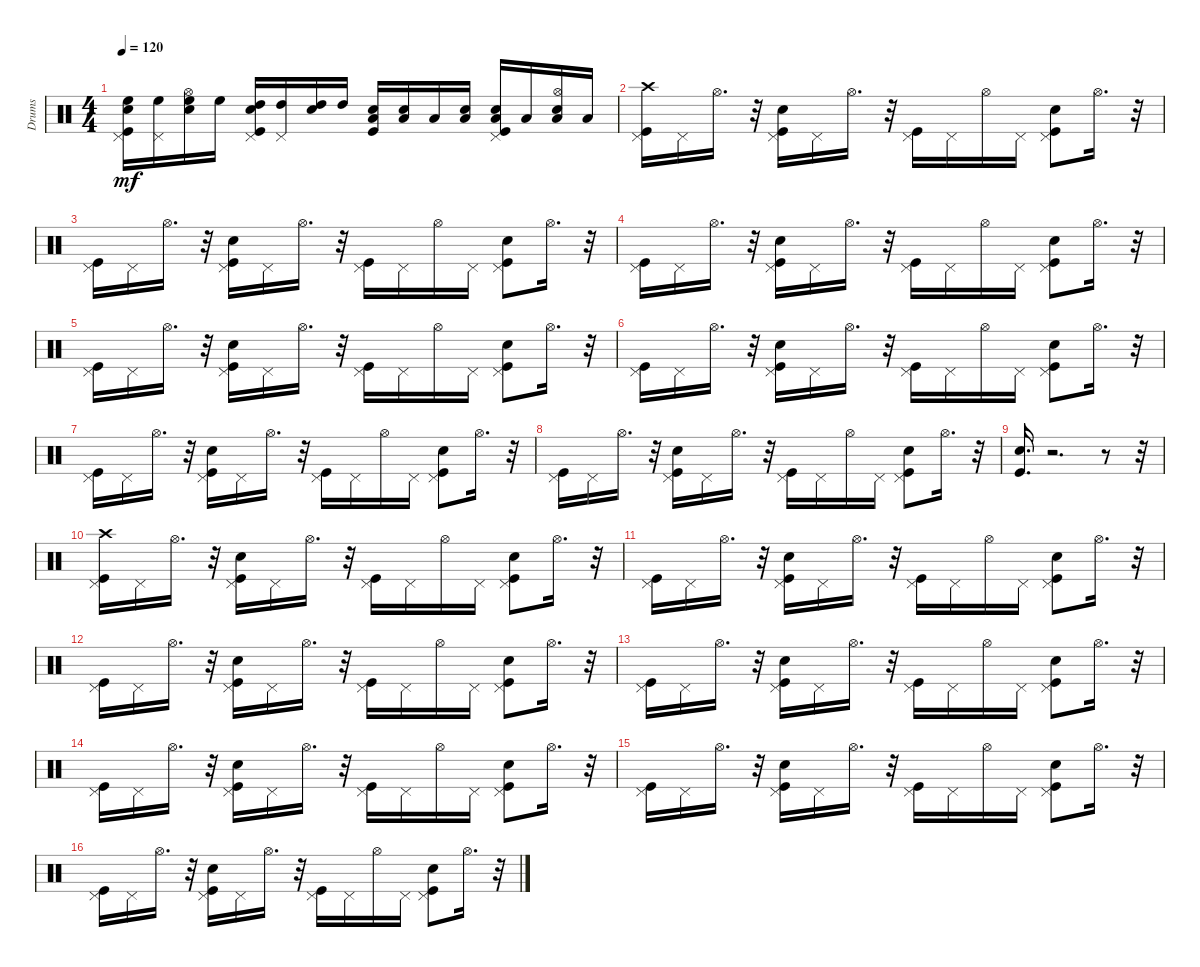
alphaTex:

\track ("Drums" "Drums") {instrument percussion}
\staff {score}
\articulation defaults
\ts (4 4)
\tempo 120
\clef neutral
\ks c
("High Floor Tom (hit)" "Pedal Hi-Hat (hit)" "Kick (hit)" "Snare (hit) 2").16{dy mf} ("High Floor Tom (hit)" "Pedal Hi-Hat (hit)").16 ("High Floor Tom (hit)" "Hi-Hat (open)" "Snare (hit) 2").16 "High Floor Tom (hit)".16 ("High Tom (hit)" "Pedal Hi-Hat (hit)" "Kick (hit)" "Snare (hit) 2").16 ("High Tom (hit)" "Pedal Hi-Hat (hit)").16 ("High Tom (hit)" "Snare (hit) 2").16 "High Tom (hit)".16 ("Low Tom (hit)" "Kick (hit)" "Snare (hit) 2").16 ("Low Tom (hit)" "Snare (hit) 2").16 "Low Tom (hit)".16 ("Low Tom (hit)" "Snare (hit) 2").16 ("Low Floor Tom (hit)" "Pedal Hi-Hat (hit)" "Kick (hit)" "Snare (hit) 2").16 "Low Floor Tom (hit)".16 ("Low Floor Tom (hit)" "Hi-Hat (open)" "Snare (hit) 2").16 "Low Floor Tom (hit)".16 |
("Crash high (hit)" "Pedal Hi-Hat (hit)" "Kick (hit)").16 "Pedal Hi-Hat (hit)".16 "Hi-Hat (open)".16{d} r.32 ("Pedal Hi-Hat (hit)" "Snare (hit) 2" "Kick (hit)").16 "Pedal Hi-Hat (hit)".16 "Hi-Hat (open)".16{d} r.32 ("Pedal Hi-Hat (hit)" "Kick (hit)").16 "Pedal Hi-Hat (hit)".16 "Hi-Hat (open)".16 "Pedal Hi-Hat (hit)".16 ("Pedal Hi-Hat (hit)" "Snare (hit) 2" "Kick (hit)").8 "Hi-Hat (open)".16{d} r.32 |
("Pedal Hi-Hat (hit)" "Kick (hit)").16 "Pedal Hi-Hat (hit)".16 "Hi-Hat (open)".16{d} r.32 ("Pedal Hi-Hat (hit)" "Snare (hit) 2" "Kick (hit)").16 "Pedal Hi-Hat (hit)".16 "Hi-Hat (open)".16{d} r.32 ("Pedal Hi-Hat (hit)" "Kick (hit)").16 "Pedal Hi-Hat (hit)".16 "Hi-Hat (open)".16 "Pedal Hi-Hat (hit)".16 ("Pedal Hi-Hat (hit)" "Snare (hit) 2" "Kick (hit)").8 "Hi-Hat (open)".16{d} r.32 |
("Pedal Hi-Hat (hit)" "Kick (hit)").16 "Pedal Hi-Hat (hit)".16 "Hi-Hat (open)".16{d} r.32 ("Pedal Hi-Hat (hit)" "Snare (hit) 2" "Kick (hit)").16 "Pedal Hi-Hat (hit)".16 "Hi-Hat (open)".16{d} r.32 ("Pedal Hi-Hat (hit)" "Kick (hit)").16 "Pedal Hi-Hat (hit)".16 "Hi-Hat (open)".16 "Pedal Hi-Hat (hit)".16 ("Pedal Hi-Hat (hit)" "Snare (hit) 2" "Kick (hit)").8 "Hi-Hat (open)".16{d} r.32 |
("Pedal Hi-Hat (hit)" "Kick (hit)").16 "Pedal Hi-Hat (hit)".16 "Hi-Hat (open)".16{d} r.32 ("Pedal Hi-Hat (hit)" "Snare (hit) 2" "Kick (hit)").16 "Pedal Hi-Hat (hit)".16 "Hi-Hat (open)".16{d} r.32 ("Pedal Hi-Hat (hit)" "Kick (hit)").16 "Pedal Hi-Hat (hit)".16 "Hi-Hat (open)".16 "Pedal Hi-Hat (hit)".16 ("Pedal Hi-Hat (hit)" "Snare (hit) 2" "Kick (hit)").8 "Hi-Hat (open)".16{d} r.32 |
("Pedal Hi-Hat (hit)" "Kick (hit)").16 "Pedal Hi-Hat (hit)".16 "Hi-Hat (open)".16{d} r.32 ("Pedal Hi-Hat (hit)" "Kick (hit)" "Snare (hit) 2").16 "Pedal Hi-Hat (hit)".16 "Hi-Hat (open)".16{d} r.32 ("Pedal Hi-Hat (hit)" "Kick (hit)").16 "Pedal Hi-Hat (hit)".16 "Hi-Hat (open)".16 "Pedal Hi-Hat (hit)".16 ("Pedal Hi-Hat (hit)" "Kick (hit)" "Snare (hit) 2").8 "Hi-Hat (open)".16{d} r.32 |
("Pedal Hi-Hat (hit)" "Kick (hit)").16 "Pedal Hi-Hat (hit)".16 "Hi-Hat (open)".16{d} r.32 ("Pedal Hi-Hat (hit)" "Snare (hit) 2" "Kick (hit)").16 "Pedal Hi-Hat (hit)".16 "Hi-Hat (open)".16{d} r.32 ("Pedal Hi-Hat (hit)" "Kick (hit)").16 "Pedal Hi-Hat (hit)".16 "Hi-Hat (open)".16 "Pedal Hi-Hat (hit)".16 ("Pedal Hi-Hat (hit)" "Snare (hit) 2" "Kick (hit)").8 "Hi-Hat (open)".16{d} r.32 |
("Pedal Hi-Hat (hit)" "Kick (hit)").16 "Pedal Hi-Hat (hit)".16 "Hi-Hat (open)".16{d} r.32 ("Pedal Hi-Hat (hit)" "Snare (hit) 2" "Kick (hit)").16 "Pedal Hi-Hat (hit)".16 "Hi-Hat (open)".16{d} r.32 ("Pedal Hi-Hat (hit)" "Kick (hit)").16 "Pedal Hi-Hat (hit)".16 "Hi-Hat (open)".16 "Pedal Hi-Hat (hit)".16 ("Pedal Hi-Hat (hit)" "Snare (hit) 2" "Kick (hit)").8 "Hi-Hat (open)".16{d} r.32 |
("Snare (hit) 2" "Kick (hit)").16{d} r.2{d} r.8 r.32 |
("Crash high (hit)" "Pedal Hi-Hat (hit)" "Kick (hit)").16 "Pedal Hi-Hat (hit)".16 "Hi-Hat (open)".16{d} r.32 ("Pedal Hi-Hat (hit)" "Snare (hit) 2" "Kick (hit)").16 "Pedal Hi-Hat (hit)".16 "Hi-Hat (open)".16{d} r.32 ("Pedal Hi-Hat (hit)" "Kick (hit)").16 "Pedal Hi-Hat (hit)".16 "Hi-Hat (open)".16 "Pedal Hi-Hat (hit)".16 ("Pedal Hi-Hat (hit)" "Snare (hit) 2" "Kick (hit)").8 "Hi-Hat (open)".16{d} r.32 |
("Pedal Hi-Hat (hit)" "Kick (hit)").16 "Pedal Hi-Hat (hit)".16 "Hi-Hat (open)".16{d} r.32 ("Pedal Hi-Hat (hit)" "Snare (hit) 2" "Kick (hit)").16 "Pedal Hi-Hat (hit)".16 "Hi-Hat (open)".16{d} r.32 ("Pedal Hi-Hat (hit)" "Kick (hit)").16 "Pedal Hi-Hat (hit)".16 "Hi-Hat (open)".16 "Pedal Hi-Hat (hit)".16 ("Pedal Hi-Hat (hit)" "Snare (hit) 2" "Kick (hit)").8 "Hi-Hat (open)".16{d} r.32 |
("Pedal Hi-Hat (hit)" "Kick (hit)").16 "Pedal Hi-Hat (hit)".16 "Hi-Hat (open)".16{d} r.32 ("Pedal Hi-Hat (hit)" "Snare (hit) 2" "Kick (hit)").16 "Pedal Hi-Hat (hit)".16 "Hi-Hat (open)".16{d} r.32 ("Pedal Hi-Hat (hit)" "Kick (hit)").16 "Pedal Hi-Hat (hit)".16 "Hi-Hat (open)".16 "Pedal Hi-Hat (hit)".16 ("Pedal Hi-Hat (hit)" "Snare (hit) 2" "Kick (hit)").8 "Hi-Hat (open)".16{d} r.32 |
("Pedal Hi-Hat (hit)" "Kick (hit)").16 "Pedal Hi-Hat (hit)".16 "Hi-Hat (open)".16{d} r.32 ("Pedal Hi-Hat (hit)" "Snare (hit) 2" "Kick (hit)").16 "Pedal Hi-Hat (hit)".16 "Hi-Hat (open)".16{d} r.32 ("Pedal Hi-Hat (hit)" "Kick (hit)").16 "Pedal Hi-Hat (hit)".16 "Hi-Hat (open)".16 "Pedal Hi-Hat (hit)".16 ("Pedal Hi-Hat (hit)" "Snare (hit) 2" "Kick (hit)").8 "Hi-Hat (open)".16{d} r.32 |
("Pedal Hi-Hat (hit)" "Kick (hit)").16 "Pedal Hi-Hat (hit)".16 "Hi-Hat (open)".16{d} r.32 ("Pedal Hi-Hat (hit)" "Snare (hit) 2" "Kick (hit)").16 "Pedal Hi-Hat (hit)".16 "Hi-Hat (open)".16{d} r.32 ("Pedal Hi-Hat (hit)" "Kick (hit)").16 "Pedal Hi-Hat (hit)".16 "Hi-Hat (open)".16 "Pedal Hi-Hat (hit)".16 ("Pedal Hi-Hat (hit)" "Snare (hit) 2" "Kick (hit)").8 "Hi-Hat (open)".16{d} r.32 |
("Pedal Hi-Hat (hit)" "Kick (hit)").16 "Pedal Hi-Hat (hit)".16 "Hi-Hat (open)".16{d} r.32 ("Pedal Hi-Hat (hit)" "Snare (hit) 2" "Kick (hit)").16 "Pedal Hi-Hat (hit)".16 "Hi-Hat (open)".16{d} r.32 ("Pedal Hi-Hat (hit)" "Kick (hit)").16 "Pedal Hi-Hat (hit)".16 "Hi-Hat (open)".16 "Pedal Hi-Hat (hit)".16 ("Pedal Hi-Hat (hit)" "Snare (hit) 2" "Kick (hit)").8 "Hi-Hat (open)".16{d} r.32 |
("Pedal Hi-Hat (hit)" "Kick (hit)").16 "Pedal Hi-Hat (hit)".16 "Hi-Hat (open)".16{d} r.32 ("Pedal Hi-Hat (hit)" "Snare (hit) 2" "Kick (hit)").16 "Pedal Hi-Hat (hit)".16 "Hi-Hat (open)".16{d} r.32 ("Pedal Hi-Hat (hit)" "Kick (hit)").16 "Pedal Hi-Hat (hit)".16 "Hi-Hat (open)".16 "Pedal Hi-Hat (hit)".16 ("Pedal Hi-Hat (hit)" "Snare (hit) 2" "Kick (hit)").8 "Hi-Hat (open)".16{d} r.32
